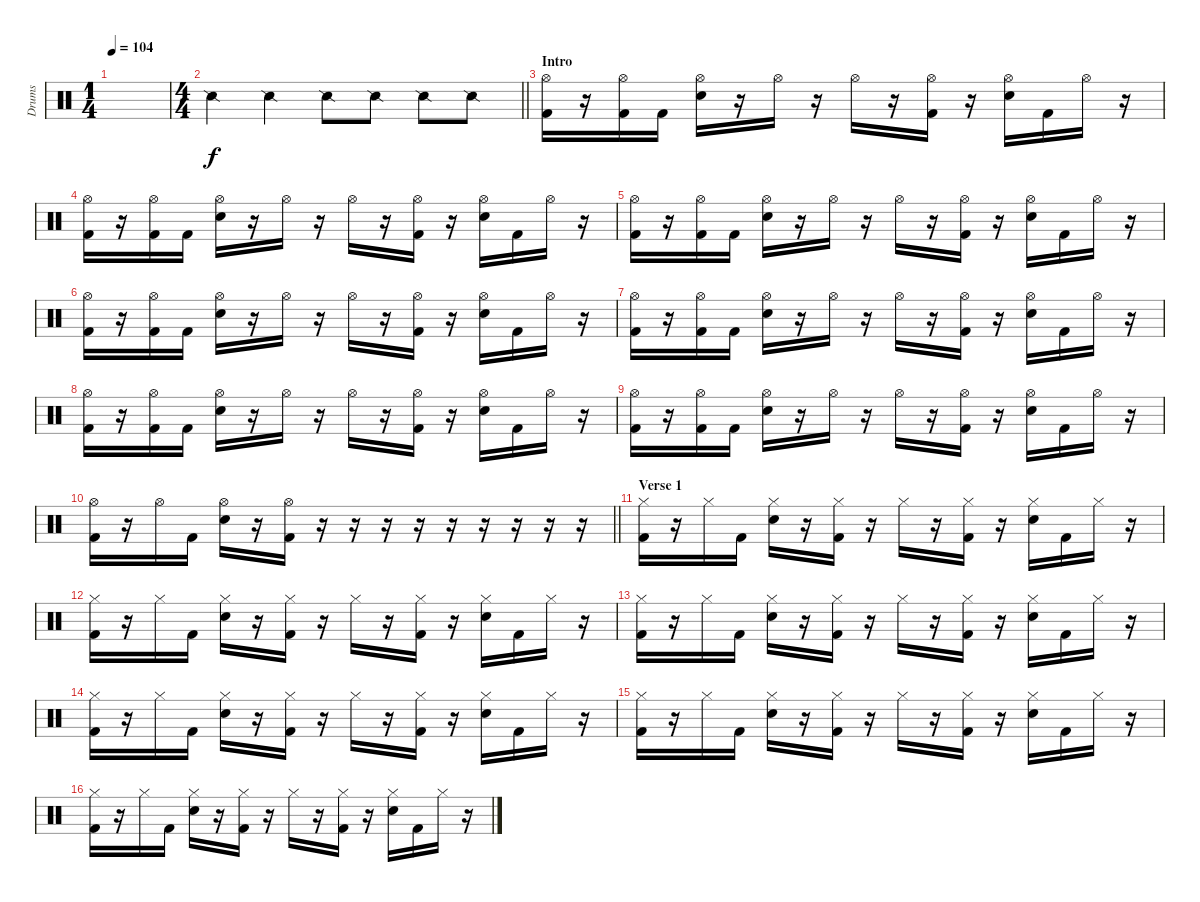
\track ("Drums" "Drums") {instrument percussion}
\staff {score}
\articulation defaults
\ts (1 4)
\tempo 104
\clef neutral
\ks c
|
\ts (4 4)
\barLineRight lightlight "Snare (side stick) 2".4 "Snare (side stick) 2".4 "Snare (side stick) 2".8 "Snare (side stick) 2".8 "Snare (side stick) 2".8 "Snare (side stick) 2".8
|
\section ("" "Intro")
("Hi-Hat (open)" "Kick (hit) 2").16 r.16 ("Hi-Hat (open)" "Kick (hit) 2").16 "Kick (hit) 2".16 ("Hi-Hat (open)" "Snare (hit) 2").16 r.16 "Hi-Hat (open)".16 r.16 "Hi-Hat (open)".16 r.16 ("Hi-Hat (open)" "Kick (hit) 2").16 r.16 ("Hi-Hat (open)" "Snare (hit) 2").16 "Kick (hit) 2".16 "Hi-Hat (open)".16 r.16 |
("Hi-Hat (open)" "Kick (hit) 2").16 r.16 ("Hi-Hat (open)" "Kick (hit) 2").16 "Kick (hit) 2".16 ("Hi-Hat (open)" "Snare (hit) 2").16 r.16 "Hi-Hat (open)".16 r.16 "Hi-Hat (open)".16 r.16 ("Hi-Hat (open)" "Kick (hit) 2").16 r.16 ("Hi-Hat (open)" "Snare (hit) 2").16 "Kick (hit) 2".16 "Hi-Hat (open)".16 r.16 |
("Hi-Hat (open)" "Kick (hit) 2").16 r.16 ("Hi-Hat (open)" "Kick (hit) 2").16 "Kick (hit) 2".16 ("Hi-Hat (open)" "Snare (hit) 2").16 r.16 "Hi-Hat (open)".16 r.16 "Hi-Hat (open)".16 r.16 ("Hi-Hat (open)" "Kick (hit) 2").16 r.16 ("Hi-Hat (open)" "Snare (hit) 2").16 "Kick (hit) 2".16 "Hi-Hat (open)".16 r.16 |
("Hi-Hat (open)" "Kick (hit) 2").16 r.16 ("Hi-Hat (open)" "Kick (hit) 2").16 "Kick (hit) 2".16 ("Hi-Hat (open)" "Snare (hit) 2").16 r.16 "Hi-Hat (open)".16 r.16 "Hi-Hat (open)".16 r.16 ("Hi-Hat (open)" "Kick (hit) 2").16 r.16 ("Hi-Hat (open)" "Snare (hit) 2").16 "Kick (hit) 2".16 "Hi-Hat (open)".16 r.16 |
("Hi-Hat (open)" "Kick (hit) 2").16 r.16 ("Hi-Hat (open)" "Kick (hit) 2").16 "Kick (hit) 2".16 ("Hi-Hat (open)" "Snare (hit) 2").16 r.16 "Hi-Hat (open)".16 r.16 "Hi-Hat (open)".16 r.16 ("Hi-Hat (open)" "Kick (hit) 2").16 r.16 ("Hi-Hat (open)" "Snare (hit) 2").16 "Kick (hit) 2".16 "Hi-Hat (open)".16 r.16 |
("Hi-Hat (open)" "Kick (hit) 2").16 r.16 ("Hi-Hat (open)" "Kick (hit) 2").16 "Kick (hit) 2".16 ("Hi-Hat (open)" "Snare (hit) 2").16 r.16 "Hi-Hat (open)".16 r.16 "Hi-Hat (open)".16 r.16 ("Hi-Hat (open)" "Kick (hit) 2").16 r.16 ("Hi-Hat (open)" "Snare (hit) 2").16 "Kick (hit) 2".16 "Hi-Hat (open)".16 r.16 |
("Hi-Hat (open)" "Kick (hit) 2").16 r.16 ("Hi-Hat (open)" "Kick (hit) 2").16 "Kick (hit) 2".16 ("Hi-Hat (open)" "Snare (hit) 2").16 r.16 "Hi-Hat (open)".16 r.16 "Hi-Hat (open)".16 r.16 ("Hi-Hat (open)" "Kick (hit) 2").16 r.16 ("Hi-Hat (open)" "Snare (hit) 2").16 "Kick (hit) 2".16 "Hi-Hat (open)".16 r.16 |
\barLineRight lightlight
("Hi-Hat (open)" "Kick (hit) 2").16 r.16 "Hi-Hat (open)".16 "Kick (hit) 2".16 ("Hi-Hat (open)" "Snare (hit) 2").16 r.16 ("Hi-Hat (open)" "Kick (hit) 2").16 r.16 r.16 r.16 r.16 r.16 r.16 r.16 r.16 r.16 |
\section ("" "Verse 1")
("Hi-Hat (closed)" "Kick (hit) 2").16 r.16 "Hi-Hat (closed)".16 "Kick (hit) 2".16 ("Hi-Hat (closed)" "Snare (hit) 2").16 r.16 ("Hi-Hat (closed)" "Kick (hit) 2").16 r.16 "Hi-Hat (closed)".16 r.16 ("Hi-Hat (closed)" "Kick (hit) 2").16 r.16 ("Hi-Hat (closed)" "Snare (hit) 2").16 "Kick (hit) 2".16 "Hi-Hat (closed)".16 r.16 |
("Hi-Hat (closed)" "Kick (hit) 2").16 r.16 "Hi-Hat (closed)".16 "Kick (hit) 2".16 ("Hi-Hat (closed)" "Snare (hit) 2").16 r.16 ("Hi-Hat (closed)" "Kick (hit) 2").16 r.16 "Hi-Hat (closed)".16 r.16 ("Hi-Hat (closed)" "Kick (hit) 2").16 r.16 ("Hi-Hat (closed)" "Snare (hit) 2").16 "Kick (hit) 2".16 "Hi-Hat (closed)".16 r.16 |
("Hi-Hat (closed)" "Kick (hit) 2").16 r.16 "Hi-Hat (closed)".16 "Kick (hit) 2".16 ("Hi-Hat (closed)" "Snare (hit) 2").16 r.16 ("Hi-Hat (closed)" "Kick (hit) 2").16 r.16 "Hi-Hat (closed)".16 r.16 ("Hi-Hat (closed)" "Kick (hit) 2").16 r.16 ("Hi-Hat (closed)" "Snare (hit) 2").16 "Kick (hit) 2".16 "Hi-Hat (closed)".16 r.16 |
("Hi-Hat (closed)" "Kick (hit) 2").16 r.16 "Hi-Hat (closed)".16 "Kick (hit) 2".16 ("Hi-Hat (closed)" "Snare (hit) 2").16 r.16 ("Hi-Hat (closed)" "Kick (hit) 2").16 r.16 "Hi-Hat (closed)".16 r.16 ("Hi-Hat (closed)" "Kick (hit) 2").16 r.16 ("Hi-Hat (closed)" "Snare (hit) 2").16 "Kick (hit) 2".16 "Hi-Hat (closed)".16 r.16 |
("Hi-Hat (closed)" "Kick (hit) 2").16 r.16 "Hi-Hat (closed)".16 "Kick (hit) 2".16 ("Hi-Hat (closed)" "Snare (hit) 2").16 r.16 ("Hi-Hat (closed)" "Kick (hit) 2").16 r.16 "Hi-Hat (closed)".16 r.16 ("Hi-Hat (closed)" "Kick (hit) 2").16 r.16 ("Hi-Hat (closed)" "Snare (hit) 2").16 "Kick (hit) 2".16 "Hi-Hat (closed)".16 r.16 |
("Hi-Hat (closed)" "Kick (hit) 2").16 r.16 "Hi-Hat (closed)".16 "Kick (hit) 2".16 ("Hi-Hat (closed)" "Snare (hit) 2").16 r.16 ("Hi-Hat (closed)" "Kick (hit) 2").16 r.16 "Hi-Hat (closed)".16 r.16 ("Hi-Hat (closed)" "Kick (hit) 2").16 r.16 ("Hi-Hat (closed)" "Snare (hit) 2").16 "Kick (hit) 2".16 "Hi-Hat (closed)".16 r.16
